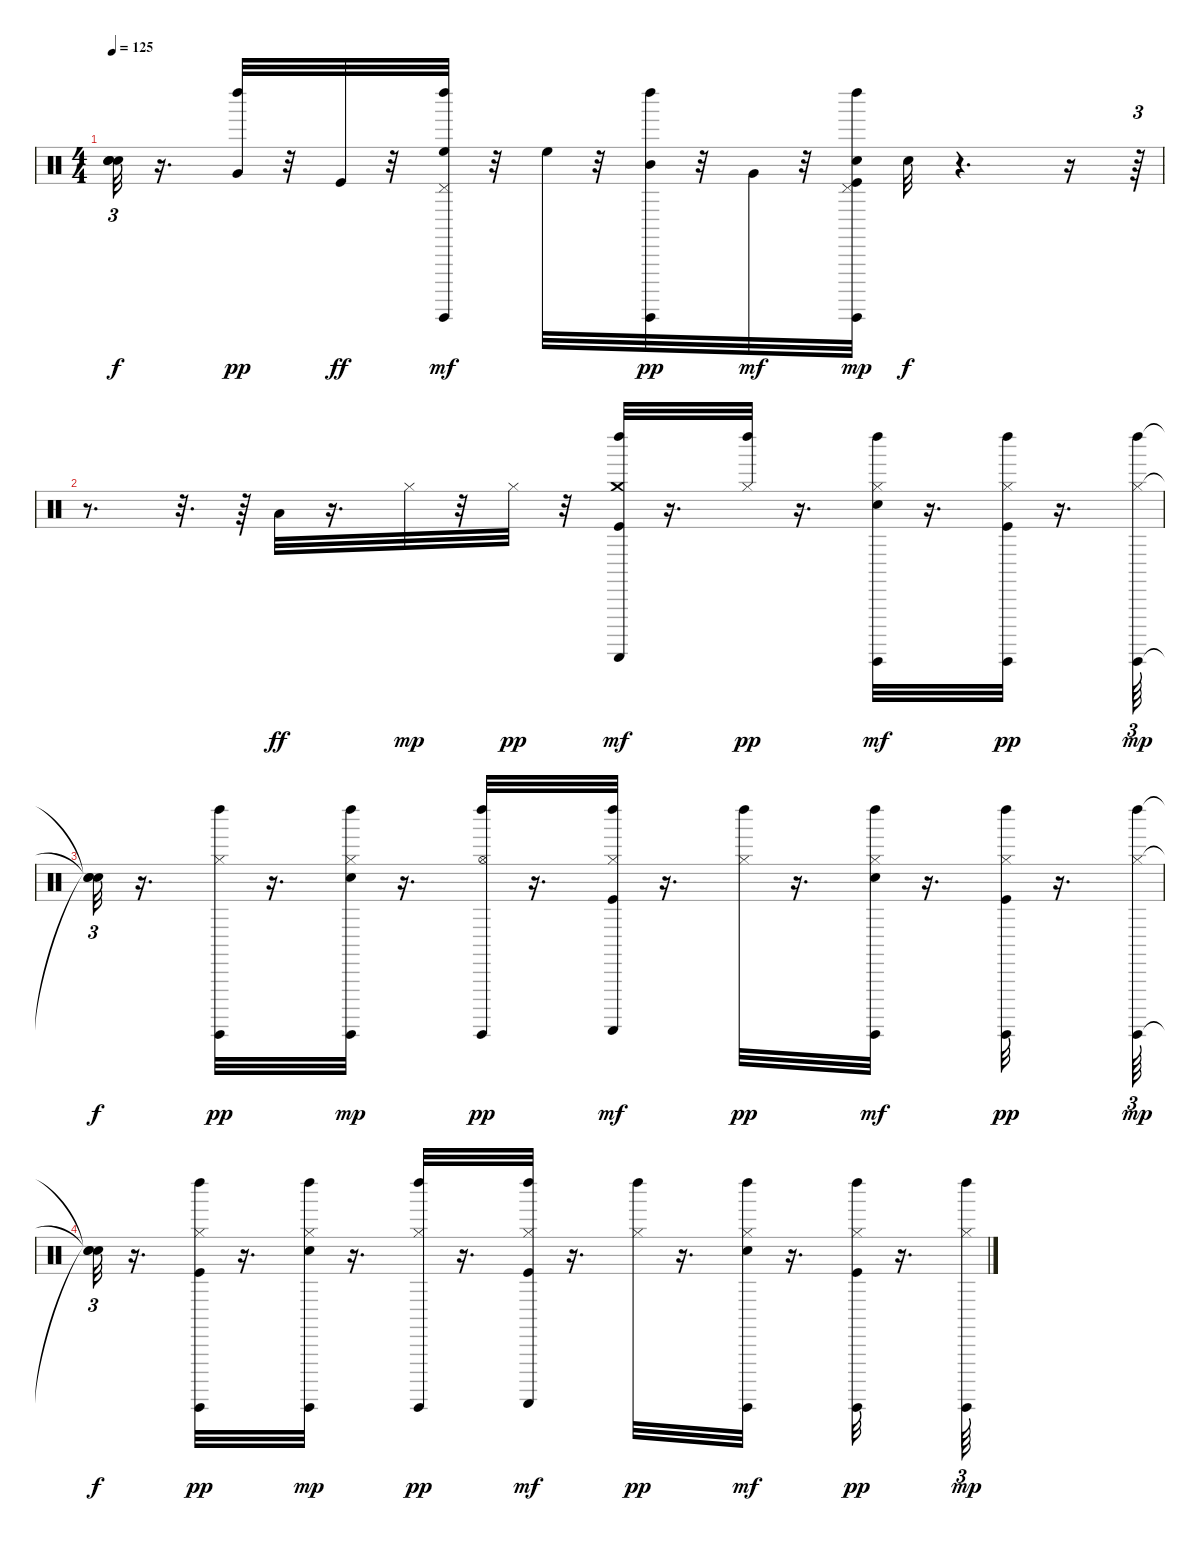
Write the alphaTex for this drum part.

\track "" {instrument percussion}
\staff {score}
\articulation defaults
\ts (4 4)
\tempo 125
\clef neutral
\ks c
("Snare (hit)"{t} "Snare (hit)"{t} "Snare (hit)"{t} "Snare (hit)"{t}).32{tu (3 2) dy f} r.16{d} ("Very Low Tom (hit)" "Left Maraca (hit)").32{dy pp} r.32 "Kick (hit)".32{dy ff} r.32 ("High Floor Tom (hit)" "Pedal Hi-Hat (hit)" "Left Maraca (hit)" "Guiro (hit)").32{dy mf} r.32 "High Floor Tom (hit)".32 r.32 ("Left Maraca (hit)" "Mid Tom (hit)" "Guiro (hit)").32{dy pp} r.32 "Very Low Tom (hit)".32{dy mf} r.32 ("Kick (hit)" "Left Maraca (hit)" "Pedal Hi-Hat (hit)" "Electric Snare (hit)" "Guiro (hit)").32{dy mp} "Electric Snare (hit)".32{dy f} r.4{d} r.16 r.64{tu (3 2)} |
r.8{d} r.32{d} r.64 "Low Tom (hit)".32{dy ff} r.16{d} "Hi-Hat (closed)".32{dy mp} r.32 "Hi-Hat (closed)".32{dy pp} r.32 ("Left Maraca (hit)" "Crash medium (hit)" "Kick (hit)" "Guiro (scrap-return)").32{dy mf} r.16{d} ("Hi-Hat (closed)" "Left Maraca (hit)").32{dy pp} r.16{d} ("Electric Snare (hit)" "Hi-Hat (closed)" "Left Maraca (hit)" "Guiro (hit)").32{dy mf} r.16{d} ("Left Maraca (hit)" "Kick (hit)" "Hi-Hat (closed)" "Guiro (hit)").32{dy pp} r.16{d} ("Left Maraca (hit)" "Hi-Hat (closed)" "Guiro (hit)").64{tu (3 2) dy mp} |
("Snare (hit)"{t} "Snare (hit)"{t} "Snare (hit)"{t}).32{tu (3 2) dy f} r.16{d} ("Hi-Hat (closed)" "Left Maraca (hit)" "Guiro (hit)").32{dy pp} r.16{d} ("Left Maraca (hit)" "Electric Snare (hit)" "Hi-Hat (closed)" "Guiro (hit)").32{dy mp} r.16{d} ("Left Maraca (hit)" "Hi-Hat (open)" "Guiro (hit)").32{dy pp} r.16{d} ("Left Maraca (hit)" "Kick (hit)" "Hi-Hat (closed)" "Guiro (scrap-return)").32{dy mf} r.16{d} ("Hi-Hat (closed)" "Left Maraca (hit)").32{dy pp} r.16{d} ("Electric Snare (hit)" "Hi-Hat (closed)" "Left Maraca (hit)" "Guiro (hit)").32{dy mf} r.16{d} ("Kick (hit)" "Hi-Hat (closed)" "Left Maraca (hit)" "Guiro (hit)").32{dy pp} r.16{d} ("Hi-Hat (closed)" "Left Maraca (hit)" "Guiro (hit)").64{tu (3 2) dy mp} |
("Snare (hit)"{t} "Snare (hit)"{t} "Snare (hit)"{t}).32{tu (3 2) dy f} r.16{d} ("Left Maraca (hit)" "Hi-Hat (closed)" "Kick (hit)" "Guiro (hit)").32{dy pp} r.16{d} ("Electric Snare (hit)" "Hi-Hat (closed)" "Left Maraca (hit)" "Guiro (hit)").32{dy mp} r.16{d} ("Left Maraca (hit)" "Hi-Hat (closed)" "Guiro (hit)").32{dy pp} r.16{d} ("Kick (hit)" "Hi-Hat (closed)" "Left Maraca (hit)" "Guiro (scrap-return)").32{dy mf} r.16{d} ("Left Maraca (hit)" "Hi-Hat (closed)").32{dy pp} r.16{d} ("Left Maraca (hit)" "Electric Snare (hit)" "Hi-Hat (closed)" "Guiro (hit)").32{dy mf} r.16{d} ("Left Maraca (hit)" "Hi-Hat (closed)" "Kick (hit)" "Guiro (hit)").32{dy pp} r.16{d} ("Hi-Hat (closed)" "Left Maraca (hit)" "Guiro (hit)").64{tu (3 2) dy mp}
